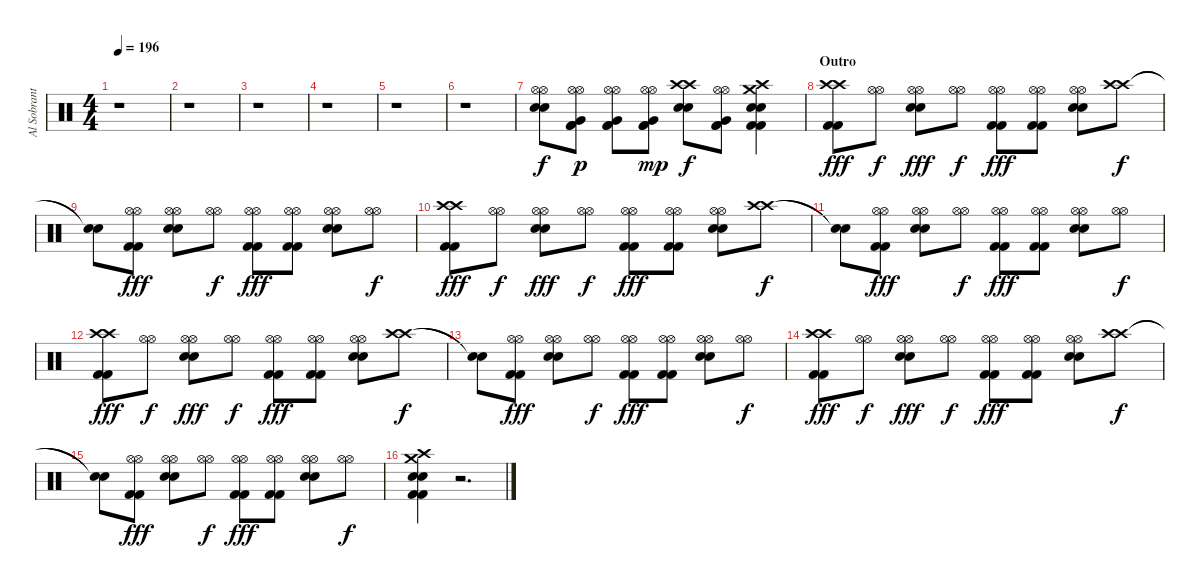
\track ("Al Sobrante (Drums)" "Al Sobrant") {instrument percussion}
\staff {score}
\articulation defaults
\ts (4 4)
\tempo 196
\clef neutral
\ks c
r.1{dy f} |
r.1 |
r.1 |
r.1 |
r.1 |
r.1 |
("Electric Snare (hit)" "Electric Snare (hit)" "Hi-Hat (open)" "Hi-Hat (open)").8 ("Kick (hit) 2" "Kick (hit) 2" "Very Low Tom (hit)" "Hi-Hat (open)" "Hi-Hat (open)").8{dy p} ("Kick (hit) 2" "Kick (hit) 2" "Very Low Tom (hit)" "Hi-Hat (open)" "Hi-Hat (open)").8 ("Kick (hit) 2" "Kick (hit) 2" "Very Low Tom (hit)" "Hi-Hat (open)" "Hi-Hat (open)").8{dy mp} ("Electric Snare (hit)" "Electric Snare (hit)" "Crash high (hit)" "Crash high (hit)").8{dy f} ("Kick (hit) 2" "Kick (hit) 2" "Very Low Tom (hit)" "Hi-Hat (open)" "Hi-Hat (open)").8 ("Electric Snare (hit)" "Electric Snare (hit)" "Kick (hit) 2" "Kick (hit) 2" "Crash medium (hit)" "Crash high (hit)").4 |
\section ("" "Outro")
("Kick (hit) 2" "Kick (hit) 2" "Crash high (hit)" "Crash high (hit)").8{dy fff} ("Hi-Hat (open)" "Hi-Hat (open)").8{dy f} ("Electric Snare (hit)" "Electric Snare (hit)" "Hi-Hat (open)" "Hi-Hat (open)").8{dy fff} ("Hi-Hat (open)" "Hi-Hat (open)").8{dy f} ("Kick (hit) 2" "Kick (hit) 2" "Hi-Hat (open)" "Hi-Hat (open)").8{dy fff} ("Kick (hit) 2" "Kick (hit) 2" "Hi-Hat (open)" "Hi-Hat (open)").8 ("Electric Snare (hit)" "Electric Snare (hit)" "Hi-Hat (open)" "Hi-Hat (open)").8 ("Crash high (hit)" "Crash high (hit)").8{dy f} |
("Snare (hit)"{t} "Snare (hit)"{t}).8 ("Kick (hit) 2" "Kick (hit) 2" "Hi-Hat (open)" "Hi-Hat (open)").8{dy fff} ("Electric Snare (hit)" "Electric Snare (hit)" "Hi-Hat (open)" "Hi-Hat (open)").8 ("Hi-Hat (open)" "Hi-Hat (open)").8{dy f} ("Kick (hit) 2" "Kick (hit) 2" "Hi-Hat (open)" "Hi-Hat (open)").8{dy fff} ("Kick (hit) 2" "Kick (hit) 2" "Hi-Hat (open)" "Hi-Hat (open)").8 ("Electric Snare (hit)" "Electric Snare (hit)" "Hi-Hat (open)" "Hi-Hat (open)").8 ("Hi-Hat (open)" "Hi-Hat (open)").8{dy f} |
("Kick (hit) 2" "Kick (hit) 2" "Crash high (hit)" "Crash high (hit)").8{dy fff} ("Hi-Hat (open)" "Hi-Hat (open)").8{dy f} ("Electric Snare (hit)" "Electric Snare (hit)" "Hi-Hat (open)" "Hi-Hat (open)").8{dy fff} ("Hi-Hat (open)" "Hi-Hat (open)").8{dy f} ("Kick (hit) 2" "Kick (hit) 2" "Hi-Hat (open)" "Hi-Hat (open)").8{dy fff} ("Kick (hit) 2" "Kick (hit) 2" "Hi-Hat (open)" "Hi-Hat (open)").8 ("Electric Snare (hit)" "Electric Snare (hit)" "Hi-Hat (open)" "Hi-Hat (open)").8 ("Crash high (hit)" "Crash high (hit)").8{dy f} |
("Snare (hit)"{t} "Snare (hit)"{t}).8 ("Kick (hit) 2" "Kick (hit) 2" "Hi-Hat (open)" "Hi-Hat (open)").8{dy fff} ("Electric Snare (hit)" "Electric Snare (hit)" "Hi-Hat (open)" "Hi-Hat (open)").8 ("Hi-Hat (open)" "Hi-Hat (open)").8{dy f} ("Kick (hit) 2" "Kick (hit) 2" "Hi-Hat (open)" "Hi-Hat (open)").8{dy fff} ("Kick (hit) 2" "Kick (hit) 2" "Hi-Hat (open)" "Hi-Hat (open)").8 ("Electric Snare (hit)" "Electric Snare (hit)" "Hi-Hat (open)" "Hi-Hat (open)").8 ("Hi-Hat (open)" "Hi-Hat (open)").8{dy f} |
("Kick (hit) 2" "Kick (hit) 2" "Crash high (hit)" "Crash high (hit)").8{dy fff} ("Hi-Hat (open)" "Hi-Hat (open)").8{dy f} ("Electric Snare (hit)" "Electric Snare (hit)" "Hi-Hat (open)" "Hi-Hat (open)").8{dy fff} ("Hi-Hat (open)" "Hi-Hat (open)").8{dy f} ("Kick (hit) 2" "Kick (hit) 2" "Hi-Hat (open)" "Hi-Hat (open)").8{dy fff} ("Kick (hit) 2" "Kick (hit) 2" "Hi-Hat (open)" "Hi-Hat (open)").8 ("Electric Snare (hit)" "Electric Snare (hit)" "Hi-Hat (open)" "Hi-Hat (open)").8 ("Crash high (hit)" "Crash high (hit)").8{dy f} |
("Snare (hit)"{t} "Snare (hit)"{t}).8 ("Kick (hit) 2" "Kick (hit) 2" "Hi-Hat (open)" "Hi-Hat (open)").8{dy fff} ("Electric Snare (hit)" "Electric Snare (hit)" "Hi-Hat (open)" "Hi-Hat (open)").8 ("Hi-Hat (open)" "Hi-Hat (open)").8{dy f} ("Kick (hit) 2" "Kick (hit) 2" "Hi-Hat (open)" "Hi-Hat (open)").8{dy fff} ("Kick (hit) 2" "Kick (hit) 2" "Hi-Hat (open)" "Hi-Hat (open)").8 ("Electric Snare (hit)" "Electric Snare (hit)" "Hi-Hat (open)" "Hi-Hat (open)").8 ("Hi-Hat (open)" "Hi-Hat (open)").8{dy f} |
("Kick (hit) 2" "Kick (hit) 2" "Crash high (hit)" "Crash high (hit)").8{dy fff} ("Hi-Hat (open)" "Hi-Hat (open)").8{dy f} ("Electric Snare (hit)" "Electric Snare (hit)" "Hi-Hat (open)" "Hi-Hat (open)").8{dy fff} ("Hi-Hat (open)" "Hi-Hat (open)").8{dy f} ("Kick (hit) 2" "Kick (hit) 2" "Hi-Hat (open)" "Hi-Hat (open)").8{dy fff} ("Kick (hit) 2" "Kick (hit) 2" "Hi-Hat (open)" "Hi-Hat (open)").8 ("Electric Snare (hit)" "Electric Snare (hit)" "Hi-Hat (open)" "Hi-Hat (open)").8 ("Crash high (hit)" "Crash high (hit)").8{dy f} |
("Snare (hit)"{t} "Snare (hit)"{t}).8 ("Kick (hit) 2" "Kick (hit) 2" "Hi-Hat (open)" "Hi-Hat (open)").8{dy fff} ("Electric Snare (hit)" "Electric Snare (hit)" "Hi-Hat (open)" "Hi-Hat (open)").8 ("Hi-Hat (open)" "Hi-Hat (open)").8{dy f} ("Kick (hit) 2" "Kick (hit) 2" "Hi-Hat (open)" "Hi-Hat (open)").8{dy fff} ("Kick (hit) 2" "Kick (hit) 2" "Hi-Hat (open)" "Hi-Hat (open)").8 ("Electric Snare (hit)"{tr (36 32)} "Electric Snare (hit)"{tr (40 32)} "Hi-Hat (open)" "Hi-Hat (open)").8 ("Hi-Hat (open)" "Hi-Hat (open)").8{dy f} |
("Kick (hit) 2" "Kick (hit) 2" "Electric Snare (hit)" "Electric Snare (hit)" "Crash medium (hit)" "Crash high (hit)").4 r.2{d}
